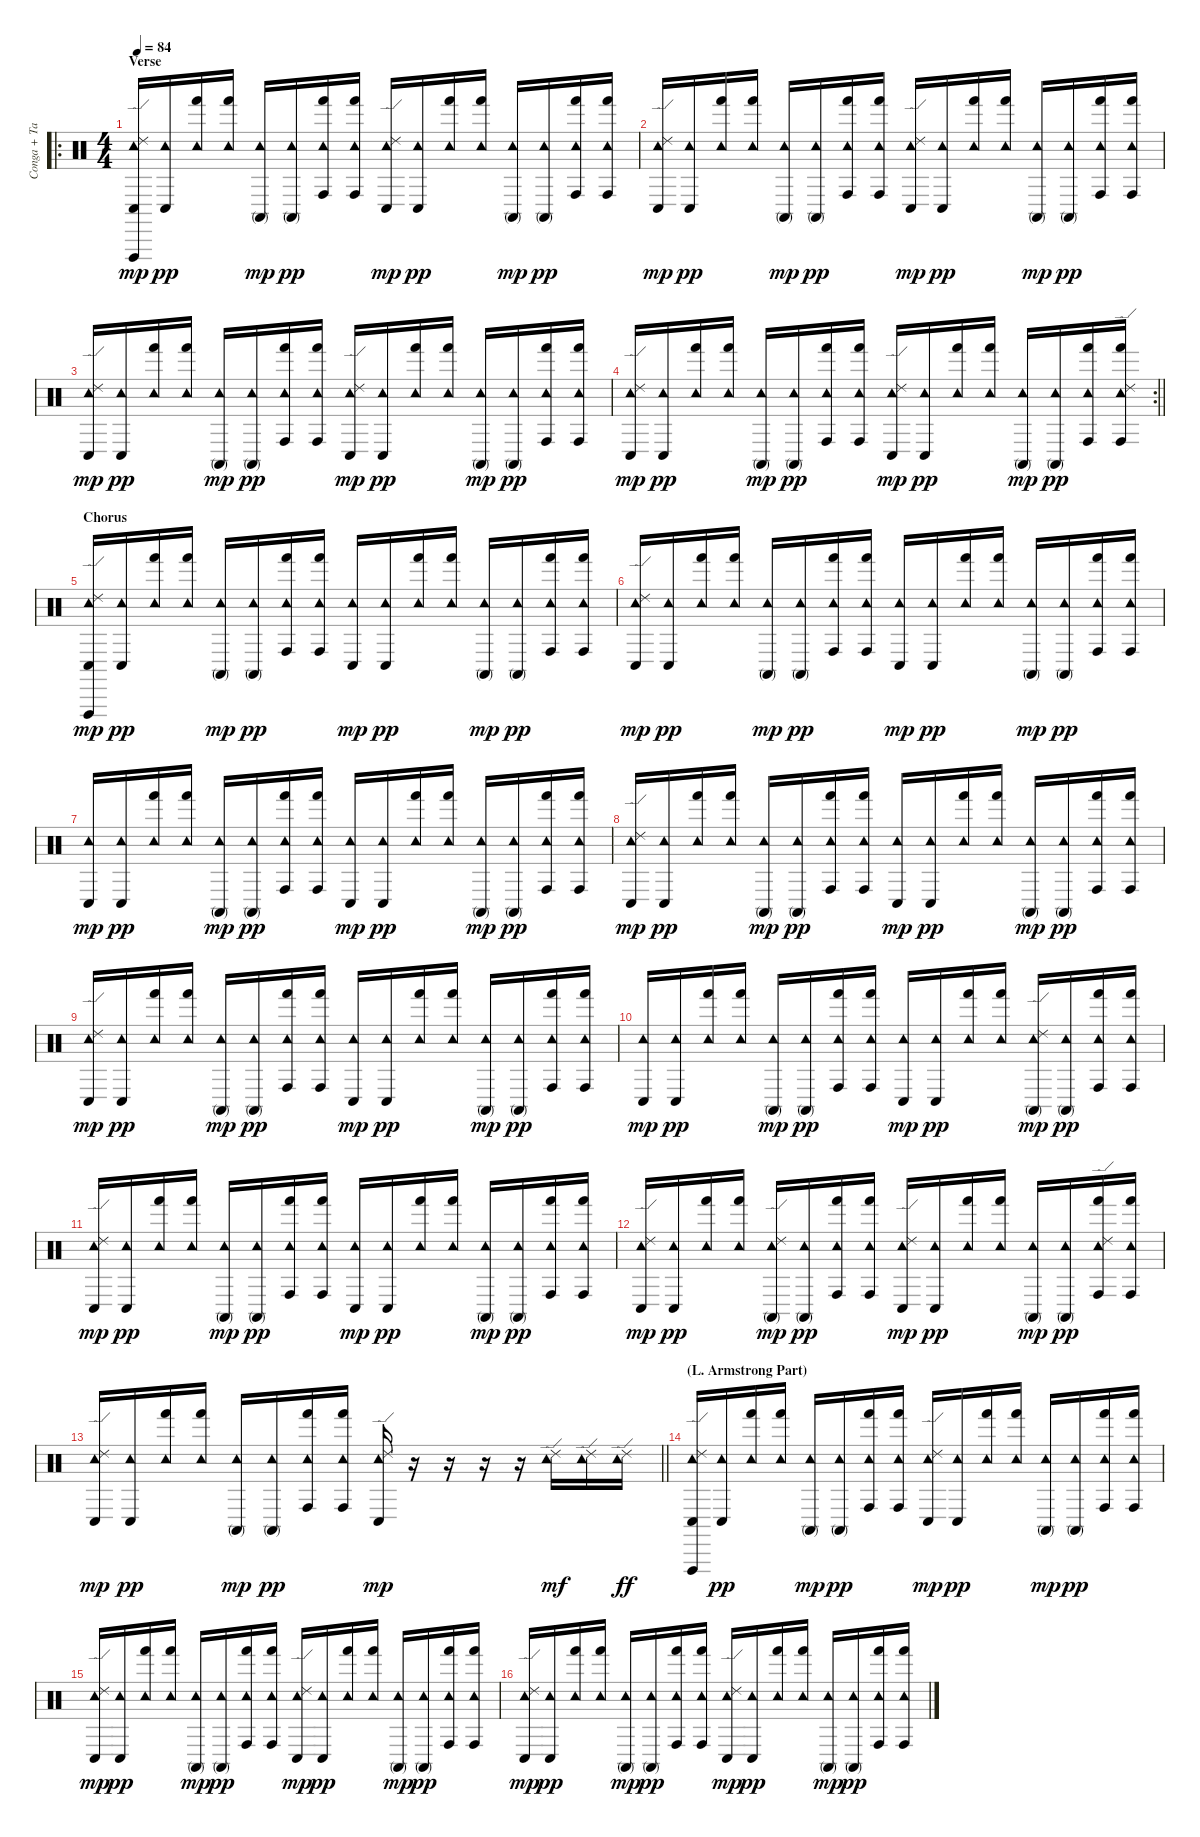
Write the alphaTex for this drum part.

\track ("Conga + Tambourine" "Conga + Ta") {instrument percussion}
\staff {score}
\articulation defaults
\ro
\ts (4 4)
\section ("" "Verse")
\tempo 84
\clef neutral
\ks c
("Conga low (hit)" "Vibraslap (hit)" "Tambourine (hit)" "Ride (edge) 2").16{dy mp} ("Conga low (hit)" "Tambourine (hit)").16{dy pp} ("Hand (hit)" "Tambourine (hit)").16 ("Hand (hit)" "Tambourine (hit)").16 ("Conga high (mute)" "Tambourine (hit)").16{dy mp} ("Conga high (mute)" "Tambourine (hit)").16{dy pp} ("Conga high (hit)" "Hand (hit)" "Tambourine (hit)").16 ("Conga high (hit)" "Hand (hit)" "Tambourine (hit)").16 ("Conga low (hit)" "Tambourine (hit)" "Ride (edge) 2").16{dy mp} ("Conga low (hit)" "Tambourine (hit)").16{dy pp} ("Hand (hit)" "Tambourine (hit)").16 ("Hand (hit)" "Tambourine (hit)").16 ("Conga high (mute)" "Tambourine (hit)").16{dy mp} ("Conga high (mute)" "Tambourine (hit)").16{dy pp} ("Conga high (hit)" "Hand (hit)" "Tambourine (hit)").16 ("Conga high (hit)" "Hand (hit)" "Tambourine (hit)").16 |
("Conga low (hit)" "Tambourine (hit)" "Ride (edge) 2").16{dy mp} ("Conga low (hit)" "Tambourine (hit)").16{dy pp} ("Hand (hit)" "Tambourine (hit)").16 ("Hand (hit)" "Tambourine (hit)").16 ("Conga high (mute)" "Tambourine (hit)").16{dy mp} ("Conga high (mute)" "Tambourine (hit)").16{dy pp} ("Conga high (hit)" "Hand (hit)" "Tambourine (hit)").16 ("Conga high (hit)" "Hand (hit)" "Tambourine (hit)").16 ("Conga low (hit)" "Tambourine (hit)" "Ride (edge) 2").16{dy mp} ("Conga low (hit)" "Tambourine (hit)").16{dy pp} ("Hand (hit)" "Tambourine (hit)").16 ("Hand (hit)" "Tambourine (hit)").16 ("Conga high (mute)" "Tambourine (hit)").16{dy mp} ("Conga high (mute)" "Tambourine (hit)").16{dy pp} ("Conga high (hit)" "Hand (hit)" "Tambourine (hit)").16 ("Conga high (hit)" "Hand (hit)" "Tambourine (hit)").16 |
("Conga low (hit)" "Tambourine (hit)" "Ride (edge) 2").16{dy mp} ("Conga low (hit)" "Tambourine (hit)").16{dy pp} ("Hand (hit)" "Tambourine (hit)").16 ("Hand (hit)" "Tambourine (hit)").16 ("Conga high (mute)" "Tambourine (hit)").16{dy mp} ("Conga high (mute)" "Tambourine (hit)").16{dy pp} ("Conga high (hit)" "Hand (hit)" "Tambourine (hit)").16 ("Conga high (hit)" "Hand (hit)" "Tambourine (hit)").16 ("Conga low (hit)" "Tambourine (hit)" "Ride (edge) 2").16{dy mp} ("Conga low (hit)" "Tambourine (hit)").16{dy pp} ("Hand (hit)" "Tambourine (hit)").16 ("Hand (hit)" "Tambourine (hit)").16 ("Conga high (mute)" "Tambourine (hit)").16{dy mp} ("Conga high (mute)" "Tambourine (hit)").16{dy pp} ("Conga high (hit)" "Hand (hit)" "Tambourine (hit)").16 ("Conga high (hit)" "Hand (hit)" "Tambourine (hit)").16 |
\rc 2
\barLineRight lightlight
("Conga low (hit)" "Tambourine (hit)" "Ride (edge) 2").16{dy mp} ("Conga low (hit)" "Tambourine (hit)").16{dy pp} ("Hand (hit)" "Tambourine (hit)").16 ("Hand (hit)" "Tambourine (hit)").16 ("Conga high (mute)" "Tambourine (hit)").16{dy mp} ("Conga high (mute)" "Tambourine (hit)").16{dy pp} ("Conga high (hit)" "Hand (hit)" "Tambourine (hit)").16 ("Conga high (hit)" "Hand (hit)" "Tambourine (hit)").16 ("Conga low (hit)" "Tambourine (hit)" "Ride (edge) 2").16{dy mp} ("Conga low (hit)" "Tambourine (hit)").16{dy pp} ("Hand (hit)" "Tambourine (hit)").16 ("Hand (hit)" "Tambourine (hit)").16 ("Conga high (mute)" "Tambourine (hit)").16{dy mp} ("Conga high (mute)" "Tambourine (hit)").16{dy pp} ("Conga high (hit)" "Hand (hit)" "Tambourine (hit)").16 ("Conga high (hit)" "Hand (hit)" "Tambourine (hit)" "Ride (edge) 2").16 |
\section ("" "Chorus")
("Conga low (hit)" "Vibraslap (hit)" "Tambourine (hit)" "Ride (edge) 2").16{dy mp} ("Conga low (hit)" "Tambourine (hit)").16{dy pp} ("Hand (hit)" "Tambourine (hit)").16 ("Hand (hit)" "Tambourine (hit)").16 ("Conga high (mute)" "Tambourine (hit)").16{dy mp} ("Conga high (mute)" "Tambourine (hit)").16{dy pp} ("Conga high (hit)" "Hand (hit)" "Tambourine (hit)").16 ("Conga high (hit)" "Hand (hit)" "Tambourine (hit)").16 ("Conga low (hit)" "Tambourine (hit)").16{dy mp} ("Conga low (hit)" "Tambourine (hit)").16{dy pp} ("Hand (hit)" "Tambourine (hit)").16 ("Hand (hit)" "Tambourine (hit)").16 ("Conga high (mute)" "Tambourine (hit)").16{dy mp} ("Conga high (mute)" "Tambourine (hit)").16{dy pp} ("Conga high (hit)" "Hand (hit)" "Tambourine (hit)").16 ("Conga high (hit)" "Hand (hit)" "Tambourine (hit)").16 |
("Conga low (hit)" "Tambourine (hit)" "Ride (edge) 2").16{dy mp} ("Conga low (hit)" "Tambourine (hit)").16{dy pp} ("Hand (hit)" "Tambourine (hit)").16 ("Hand (hit)" "Tambourine (hit)").16 ("Conga high (mute)" "Tambourine (hit)").16{dy mp} ("Conga high (mute)" "Tambourine (hit)").16{dy pp} ("Conga high (hit)" "Hand (hit)" "Tambourine (hit)").16 ("Conga high (hit)" "Hand (hit)" "Tambourine (hit)").16 ("Conga low (hit)" "Tambourine (hit)").16{dy mp} ("Conga low (hit)" "Tambourine (hit)").16{dy pp} ("Hand (hit)" "Tambourine (hit)").16 ("Hand (hit)" "Tambourine (hit)").16 ("Conga high (mute)" "Tambourine (hit)").16{dy mp} ("Conga high (mute)" "Tambourine (hit)").16{dy pp} ("Conga high (hit)" "Hand (hit)" "Tambourine (hit)").16 ("Conga high (hit)" "Hand (hit)" "Tambourine (hit)").16 |
("Conga low (hit)" "Tambourine (hit)").16{dy mp} ("Conga low (hit)" "Tambourine (hit)").16{dy pp} ("Hand (hit)" "Tambourine (hit)").16 ("Hand (hit)" "Tambourine (hit)").16 ("Conga high (mute)" "Tambourine (hit)").16{dy mp} ("Conga high (mute)" "Tambourine (hit)").16{dy pp} ("Conga high (hit)" "Hand (hit)" "Tambourine (hit)").16 ("Conga high (hit)" "Hand (hit)" "Tambourine (hit)").16 ("Conga low (hit)" "Tambourine (hit)").16{dy mp} ("Conga low (hit)" "Tambourine (hit)").16{dy pp} ("Hand (hit)" "Tambourine (hit)").16 ("Hand (hit)" "Tambourine (hit)").16 ("Conga high (mute)" "Tambourine (hit)").16{dy mp} ("Conga high (mute)" "Tambourine (hit)").16{dy pp} ("Conga high (hit)" "Hand (hit)" "Tambourine (hit)").16 ("Conga high (hit)" "Hand (hit)" "Tambourine (hit)").16 |
("Conga low (hit)" "Tambourine (hit)" "Ride (edge) 2").16{dy mp} ("Conga low (hit)" "Tambourine (hit)").16{dy pp} ("Hand (hit)" "Tambourine (hit)").16 ("Hand (hit)" "Tambourine (hit)").16 ("Conga high (mute)" "Tambourine (hit)").16{dy mp} ("Conga high (mute)" "Tambourine (hit)").16{dy pp} ("Conga high (hit)" "Hand (hit)" "Tambourine (hit)").16 ("Conga high (hit)" "Hand (hit)" "Tambourine (hit)").16 ("Conga low (hit)" "Tambourine (hit)").16{dy mp} ("Conga low (hit)" "Tambourine (hit)").16{dy pp} ("Hand (hit)" "Tambourine (hit)").16 ("Hand (hit)" "Tambourine (hit)").16 ("Conga high (mute)" "Tambourine (hit)").16{dy mp} ("Conga high (mute)" "Tambourine (hit)").16{dy pp} ("Conga high (hit)" "Hand (hit)" "Tambourine (hit)").16 ("Conga high (hit)" "Hand (hit)" "Tambourine (hit)").16 |
("Conga low (hit)" "Tambourine (hit)" "Ride (edge) 2").16{dy mp} ("Conga low (hit)" "Tambourine (hit)").16{dy pp} ("Hand (hit)" "Tambourine (hit)").16 ("Hand (hit)" "Tambourine (hit)").16 ("Conga high (mute)" "Tambourine (hit)").16{dy mp} ("Conga high (mute)" "Tambourine (hit)").16{dy pp} ("Conga high (hit)" "Hand (hit)" "Tambourine (hit)").16 ("Conga high (hit)" "Hand (hit)" "Tambourine (hit)").16 ("Conga low (hit)" "Tambourine (hit)").16{dy mp} ("Conga low (hit)" "Tambourine (hit)").16{dy pp} ("Hand (hit)" "Tambourine (hit)").16 ("Hand (hit)" "Tambourine (hit)").16 ("Conga high (mute)" "Tambourine (hit)").16{dy mp} ("Conga high (mute)" "Tambourine (hit)").16{dy pp} ("Conga high (hit)" "Hand (hit)" "Tambourine (hit)").16 ("Conga high (hit)" "Hand (hit)" "Tambourine (hit)").16 |
("Conga low (hit)" "Tambourine (hit)").16{dy mp} ("Conga low (hit)" "Tambourine (hit)").16{dy pp} ("Hand (hit)" "Tambourine (hit)").16 ("Hand (hit)" "Tambourine (hit)").16 ("Conga high (mute)" "Tambourine (hit)").16{dy mp} ("Conga high (mute)" "Tambourine (hit)").16{dy pp} ("Conga high (hit)" "Hand (hit)" "Tambourine (hit)").16 ("Conga high (hit)" "Hand (hit)" "Tambourine (hit)").16 ("Conga low (hit)" "Tambourine (hit)").16{dy mp} ("Conga low (hit)" "Tambourine (hit)").16{dy pp} ("Hand (hit)" "Tambourine (hit)").16 ("Hand (hit)" "Tambourine (hit)").16 ("Conga high (mute)" "Tambourine (hit)" "Ride (edge) 2").16{dy mp} ("Conga high (mute)" "Tambourine (hit)").16{dy pp} ("Conga high (hit)" "Hand (hit)" "Tambourine (hit)").16 ("Conga high (hit)" "Hand (hit)" "Tambourine (hit)").16 |
("Conga low (hit)" "Tambourine (hit)" "Ride (edge) 2").16{dy mp} ("Conga low (hit)" "Tambourine (hit)").16{dy pp} ("Hand (hit)" "Tambourine (hit)").16 ("Hand (hit)" "Tambourine (hit)").16 ("Conga high (mute)" "Tambourine (hit)").16{dy mp} ("Conga high (mute)" "Tambourine (hit)").16{dy pp} ("Conga high (hit)" "Hand (hit)" "Tambourine (hit)").16 ("Conga high (hit)" "Hand (hit)" "Tambourine (hit)").16 ("Conga low (hit)" "Tambourine (hit)").16{dy mp} ("Conga low (hit)" "Tambourine (hit)").16{dy pp} ("Hand (hit)" "Tambourine (hit)").16 ("Hand (hit)" "Tambourine (hit)").16 ("Conga high (mute)" "Tambourine (hit)").16{dy mp} ("Conga high (mute)" "Tambourine (hit)").16{dy pp} ("Conga high (hit)" "Hand (hit)" "Tambourine (hit)").16 ("Conga high (hit)" "Hand (hit)" "Tambourine (hit)").16 |
("Conga low (hit)" "Tambourine (hit)" "Ride (edge) 2").16{dy mp} ("Conga low (hit)" "Tambourine (hit)").16{dy pp} ("Hand (hit)" "Tambourine (hit)").16 ("Hand (hit)" "Tambourine (hit)").16 ("Conga high (mute)" "Tambourine (hit)" "Ride (edge) 2").16{dy mp} ("Conga high (mute)" "Tambourine (hit)").16{dy pp} ("Conga high (hit)" "Hand (hit)" "Tambourine (hit)").16 ("Conga high (hit)" "Hand (hit)" "Tambourine (hit)").16 ("Conga low (hit)" "Tambourine (hit)" "Ride (edge) 2").16{dy mp} ("Conga low (hit)" "Tambourine (hit)").16{dy pp} ("Hand (hit)" "Tambourine (hit)").16 ("Hand (hit)" "Tambourine (hit)").16 ("Conga high (mute)" "Tambourine (hit)").16{dy mp} ("Conga high (mute)" "Tambourine (hit)").16{dy pp} ("Conga high (hit)" "Hand (hit)" "Tambourine (hit)" "Ride (edge) 2").16 ("Conga high (hit)" "Hand (hit)" "Tambourine (hit)").16 |
\barLineRight lightlight
("Conga low (hit)" "Tambourine (hit)" "Ride (edge) 2").16{dy mp} ("Conga low (hit)" "Tambourine (hit)").16{dy pp} ("Hand (hit)" "Tambourine (hit)").16 ("Hand (hit)" "Tambourine (hit)").16 ("Conga high (mute)" "Tambourine (hit)").16{dy mp} ("Conga high (mute)" "Tambourine (hit)").16{dy pp} ("Conga high (hit)" "Hand (hit)" "Tambourine (hit)").16 ("Conga high (hit)" "Hand (hit)" "Tambourine (hit)").16 ("Conga low (hit)" "Tambourine (hit)" "Ride (edge) 2").16{dy mp} r.16 r.16 r.16 r.16 ("Tambourine (hit)" "Ride (edge) 2").16{dy mf} ("Tambourine (hit)" "Ride (edge) 2").16 ("Tambourine (hit)" "Ride (edge) 2").16{dy ff} |
\section ("" "(L. Armstrong Part)")
("Conga low (hit)" "Vibraslap (hit)" "Tambourine (hit)" "Ride (edge) 2").16 ("Conga low (hit)" "Tambourine (hit)").16{dy pp} ("Hand (hit)" "Tambourine (hit)").16 ("Hand (hit)" "Tambourine (hit)").16 ("Conga high (mute)" "Tambourine (hit)").16{dy mp} ("Conga high (mute)" "Tambourine (hit)").16{dy pp} ("Conga high (hit)" "Hand (hit)" "Tambourine (hit)").16 ("Conga high (hit)" "Hand (hit)" "Tambourine (hit)").16 ("Conga low (hit)" "Tambourine (hit)" "Ride (edge) 2").16{dy mp} ("Conga low (hit)" "Tambourine (hit)").16{dy pp} ("Hand (hit)" "Tambourine (hit)").16 ("Hand (hit)" "Tambourine (hit)").16 ("Conga high (mute)" "Tambourine (hit)").16{dy mp} ("Conga high (mute)" "Tambourine (hit)").16{dy pp} ("Conga high (hit)" "Hand (hit)" "Tambourine (hit)").16 ("Conga high (hit)" "Hand (hit)" "Tambourine (hit)").16 |
("Conga low (hit)" "Tambourine (hit)" "Ride (edge) 2").16{dy mp} ("Conga low (hit)" "Tambourine (hit)").16{dy pp} ("Hand (hit)" "Tambourine (hit)").16 ("Hand (hit)" "Tambourine (hit)").16 ("Conga high (mute)" "Tambourine (hit)").16{dy mp} ("Conga high (mute)" "Tambourine (hit)").16{dy pp} ("Conga high (hit)" "Hand (hit)" "Tambourine (hit)").16 ("Conga high (hit)" "Hand (hit)" "Tambourine (hit)").16 ("Conga low (hit)" "Tambourine (hit)" "Ride (edge) 2").16{dy mp} ("Conga low (hit)" "Tambourine (hit)").16{dy pp} ("Hand (hit)" "Tambourine (hit)").16 ("Hand (hit)" "Tambourine (hit)").16 ("Conga high (mute)" "Tambourine (hit)").16{dy mp} ("Conga high (mute)" "Tambourine (hit)").16{dy pp} ("Conga high (hit)" "Hand (hit)" "Tambourine (hit)").16 ("Conga high (hit)" "Hand (hit)" "Tambourine (hit)").16 |
("Conga low (hit)" "Tambourine (hit)" "Ride (edge) 2").16{dy mp} ("Conga low (hit)" "Tambourine (hit)").16{dy pp} ("Hand (hit)" "Tambourine (hit)").16 ("Hand (hit)" "Tambourine (hit)").16 ("Conga high (mute)" "Tambourine (hit)").16{dy mp} ("Conga high (mute)" "Tambourine (hit)").16{dy pp} ("Conga high (hit)" "Hand (hit)" "Tambourine (hit)").16 ("Conga high (hit)" "Hand (hit)" "Tambourine (hit)").16 ("Conga low (hit)" "Tambourine (hit)" "Ride (edge) 2").16{dy mp} ("Conga low (hit)" "Tambourine (hit)").16{dy pp} ("Hand (hit)" "Tambourine (hit)").16 ("Hand (hit)" "Tambourine (hit)").16 ("Conga high (mute)" "Tambourine (hit)").16{dy mp} ("Conga high (mute)" "Tambourine (hit)").16{dy pp} ("Conga high (hit)" "Hand (hit)" "Tambourine (hit)").16 ("Conga high (hit)" "Hand (hit)" "Tambourine (hit)").16
